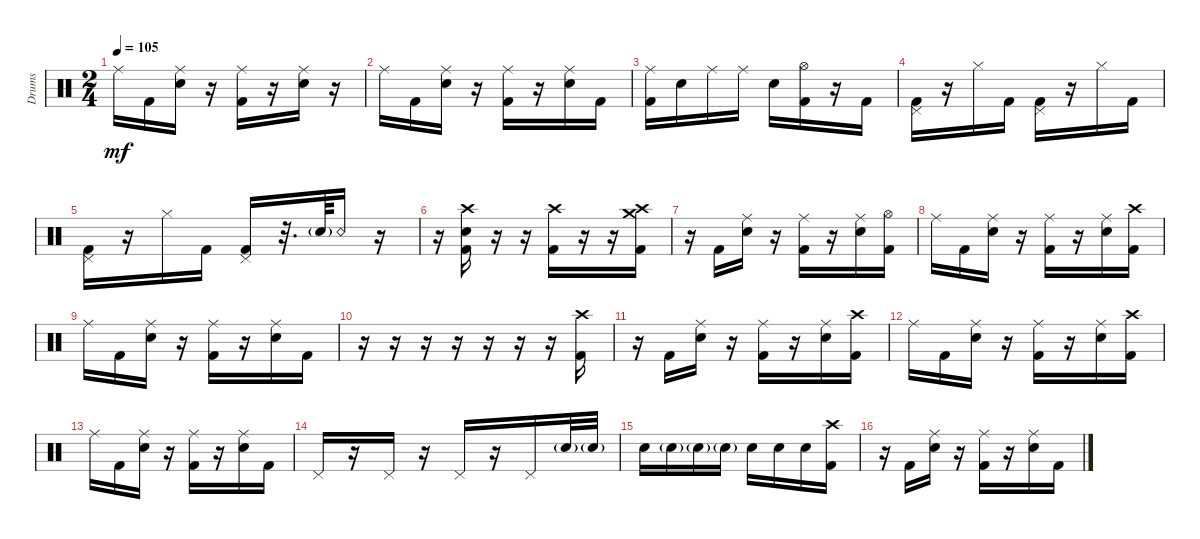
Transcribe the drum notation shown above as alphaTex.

\defaultSystemsLayout 4
\bracketExtendMode groupsimilarinstruments
\otherSystemsTrackNameOrientation horizontal
\track ("Godd" "Drums") {instrument percussion}
\staff {score}
\articulation defaults
\ts (2 4)
\tempo 105
\clef neutral
\ks c "Ride (middle)".16{dy mf} "Kick (hit) 2".16
("Ride (middle)" "Snare (hit) 2").16 r.16 ("Ride (middle)" "Kick (hit) 2").16 r.16 ("Ride (middle)" "Snare (hit) 2").16 r.16 |
"Ride (middle)".16 "Kick (hit) 2".16 ("Ride (middle)" "Snare (hit) 2").16 r.16 ("Ride (middle)" "Kick (hit) 2").16 r.16 ("Ride (middle)" "Snare (hit) 2").16 "Kick (hit) 2".16 |
("Kick (hit) 2" "Ride (middle)").16 "Snare (hit) 2".16 "Ride (middle)".16 "Ride (middle)".16 "Snare (hit) 2".16 ("Kick (hit) 2" "Hi-Hat (open)").16 r.16 "Kick (hit) 2".16 |
("Kick (hit) 2" "Pedal Hi-Hat (hit)").16 r.16 "Hi-Hat (closed)".16 "Kick (hit) 2".16 ("Kick (hit) 2" "Pedal Hi-Hat (hit)").16 r.16 "Hi-Hat (closed)".16 "Kick (hit) 2".16 |
("Kick (hit) 2" "Pedal Hi-Hat (hit)").16 r.16 "Hi-Hat (closed)".16 "Kick (hit) 2".16 ("Kick (hit) 2" "Pedal Hi-Hat (hit)").16 r.32{d} "Snare (hit) 2"{g}.64 "Snare (rim shot)".16 r.16 |
r.16 ("Crash high (hit)" "Snare (hit) 2" "Kick (hit) 2").16 r.16 r.16 ("Kick (hit) 2" "Crash high (hit)").16 r.16 r.16 ("Kick (hit) 2" "Crash medium (hit)" "Crash high (hit)").16 |
r.16 "Kick (hit) 2".16 ("Ride (middle)" "Snare (hit) 2").16 r.16 ("Ride (middle)" "Kick (hit) 2").16 r.16 ("Ride (middle)" "Snare (hit) 2").16 ("Kick (hit) 2" "Hi-Hat (open)").16 |
"Ride (middle)".16 "Kick (hit) 2".16 ("Ride (middle)" "Snare (hit) 2").16 r.16 ("Ride (middle)" "Kick (hit) 2").16 r.16 ("Ride (middle)" "Snare (hit) 2").16 ("Kick (hit) 2" "Crash high (hit)").16 |
"Ride (middle)".16 "Kick (hit) 2".16 ("Ride (middle)" "Snare (hit) 2").16 r.16 ("Ride (middle)" "Kick (hit) 2").16 r.16 ("Ride (middle)" "Snare (hit) 2").16 "Kick (hit) 2".16 |
r.16 r.16 r.16 r.16 r.16 r.16 r.16 ("Kick (hit) 2" "Crash high (hit)").16 |
r.16 "Kick (hit) 2".16 ("Ride (middle)" "Snare (hit) 2").16 r.16 ("Ride (middle)" "Kick (hit) 2").16 r.16 ("Ride (middle)" "Snare (hit) 2").16 ("Kick (hit) 2" "Crash high (hit)").16 |
"Ride (middle)".16 "Kick (hit) 2".16 ("Ride (middle)" "Snare (hit) 2").16 r.16 ("Ride (middle)" "Kick (hit) 2").16 r.16 ("Ride (middle)" "Snare (hit) 2").16 ("Kick (hit) 2" "Crash high (hit)").16 |
"Ride (middle)".16 "Kick (hit) 2".16 ("Ride (middle)" "Snare (hit) 2").16 r.16 ("Ride (middle)" "Kick (hit) 2").16 r.16 ("Ride (middle)" "Snare (hit) 2").16 "Kick (hit) 2".16 |
"Pedal Hi-Hat (hit)".16 r.16 "Pedal Hi-Hat (hit)".16 r.16 "Pedal Hi-Hat (hit)".16 r.16 "Pedal Hi-Hat (hit)".16 "Snare (hit) 2"{g}.32 "Snare (hit) 2"{g}.32 |
"Snare (hit) 2".16 "Snare (hit) 2"{g}.16 "Snare (hit) 2"{g}.16 "Snare (hit) 2"{g}.16 "Snare (hit) 2".16 "Snare (hit) 2".16 "Snare (hit) 2".16 ("Kick (hit) 2" "Crash high (hit)").16 |
r.16 "Kick (hit) 2".16 ("Ride (middle)" "Snare (hit) 2").16 r.16 ("Ride (middle)" "Kick (hit) 2").16 r.16 ("Ride (middle)" "Snare (hit) 2").16 "Kick (hit) 2".16
